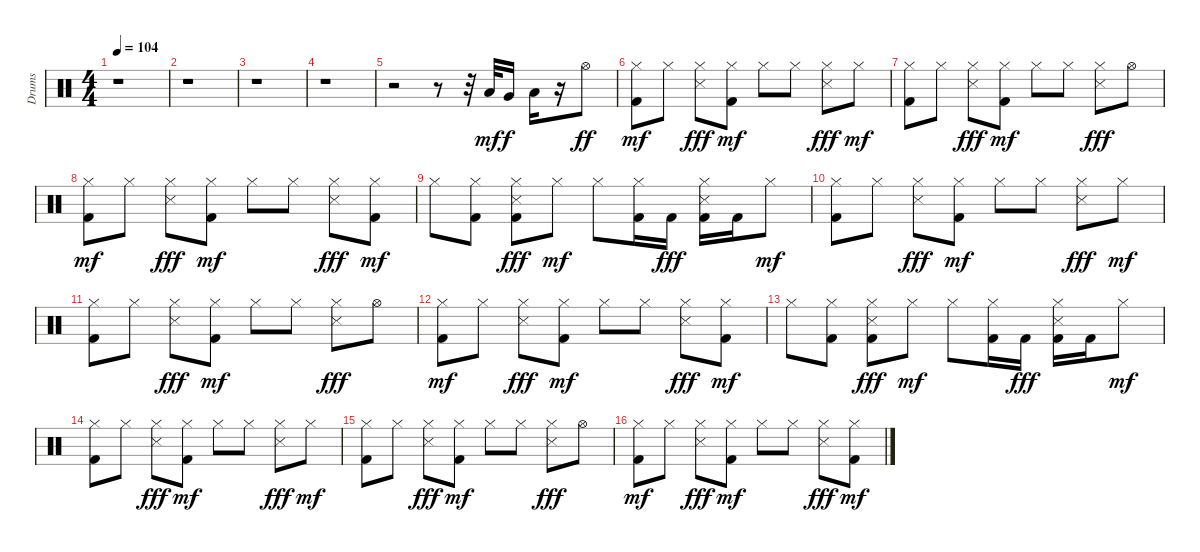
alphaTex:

\track ("Drums" "Drums") {instrument percussion}
\staff {score}
\articulation defaults
\ts (4 4)
\tempo 104
\clef neutral
\ks c
r.1{dy mf} |
r.1 |
r.1 |
r.1 |
r.2 r.8 r.32 "Low Floor Tom (hit)".32 "Very Low Tom (hit)".16{dy f} "Low Tom (hit)".16 r.16 "Hi-Hat (open)".8{dy ff} |
("Kick (hit) 2" "Hi-Hat (closed)").8{dy mf} "Hi-Hat (closed)".8 ("Hi-Hat (closed)" "Metronome (hit)").8{dy fff} ("Kick (hit) 2" "Hi-Hat (closed)").8{dy mf} "Hi-Hat (closed)".8 "Hi-Hat (closed)".8 ("Hi-Hat (closed)" "Metronome (hit)").8{dy fff} "Hi-Hat (closed)".8{dy mf} |
("Kick (hit) 2" "Hi-Hat (closed)").8 "Hi-Hat (closed)".8 ("Hi-Hat (closed)" "Metronome (hit)").8{dy fff} ("Kick (hit) 2" "Hi-Hat (closed)").8{dy mf} "Hi-Hat (closed)".8 "Hi-Hat (closed)".8 ("Hi-Hat (closed)" "Metronome (hit)").8{dy fff} "Hi-Hat (open)".8 |
("Kick (hit) 2" "Hi-Hat (closed)").8{dy mf} "Hi-Hat (closed)".8 ("Hi-Hat (closed)" "Metronome (hit)").8{dy fff} ("Kick (hit) 2" "Hi-Hat (closed)").8{dy mf} "Hi-Hat (closed)".8 "Hi-Hat (closed)".8 ("Hi-Hat (closed)" "Metronome (hit)").8{dy fff} ("Kick (hit) 2" "Hi-Hat (closed)").8{dy mf} |
"Hi-Hat (closed)".8 ("Kick (hit) 2" "Hi-Hat (closed)").8 ("Kick (hit) 2" "Hi-Hat (closed)" "Metronome (hit)").8{dy fff} "Hi-Hat (closed)".8{dy mf} "Hi-Hat (closed)".8 ("Kick (hit) 2" "Hi-Hat (closed)").16 "Kick (hit) 2".16{dy fff} ("Kick (hit) 2" "Hi-Hat (closed)" "Metronome (hit)").16 "Kick (hit) 2".16 "Hi-Hat (closed)".8{dy mf} |
("Kick (hit) 2" "Hi-Hat (closed)").8 "Hi-Hat (closed)".8 ("Hi-Hat (closed)" "Metronome (hit)").8{dy fff} ("Kick (hit) 2" "Hi-Hat (closed)").8{dy mf} "Hi-Hat (closed)".8 "Hi-Hat (closed)".8 ("Hi-Hat (closed)" "Metronome (hit)").8{dy fff} "Hi-Hat (closed)".8{dy mf} |
("Kick (hit) 2" "Hi-Hat (closed)").8 "Hi-Hat (closed)".8 ("Hi-Hat (closed)" "Metronome (hit)").8{dy fff} ("Kick (hit) 2" "Hi-Hat (closed)").8{dy mf} "Hi-Hat (closed)".8 "Hi-Hat (closed)".8 ("Hi-Hat (closed)" "Metronome (hit)").8{dy fff} "Hi-Hat (open)".8 |
("Kick (hit) 2" "Hi-Hat (closed)").8{dy mf} "Hi-Hat (closed)".8 ("Hi-Hat (closed)" "Metronome (hit)").8{dy fff} ("Kick (hit) 2" "Hi-Hat (closed)").8{dy mf} "Hi-Hat (closed)".8 "Hi-Hat (closed)".8 ("Hi-Hat (closed)" "Metronome (hit)").8{dy fff} ("Kick (hit) 2" "Hi-Hat (closed)").8{dy mf} |
"Hi-Hat (closed)".8 ("Kick (hit) 2" "Hi-Hat (closed)").8 ("Kick (hit) 2" "Hi-Hat (closed)" "Metronome (hit)").8{dy fff} "Hi-Hat (closed)".8{dy mf} "Hi-Hat (closed)".8 ("Kick (hit) 2" "Hi-Hat (closed)").16 "Kick (hit) 2".16{dy fff} ("Kick (hit) 2" "Hi-Hat (closed)" "Metronome (hit)").16 "Kick (hit) 2".16 "Hi-Hat (closed)".8{dy mf} |
("Kick (hit) 2" "Hi-Hat (closed)").8 "Hi-Hat (closed)".8 ("Hi-Hat (closed)" "Metronome (hit)").8{dy fff} ("Kick (hit) 2" "Hi-Hat (closed)").8{dy mf} "Hi-Hat (closed)".8 "Hi-Hat (closed)".8 ("Hi-Hat (closed)" "Metronome (hit)").8{dy fff} "Hi-Hat (closed)".8{dy mf} |
("Kick (hit) 2" "Hi-Hat (closed)").8 "Hi-Hat (closed)".8 ("Hi-Hat (closed)" "Metronome (hit)").8{dy fff} ("Kick (hit) 2" "Hi-Hat (closed)").8{dy mf} "Hi-Hat (closed)".8 "Hi-Hat (closed)".8 ("Hi-Hat (closed)" "Metronome (hit)").8{dy fff} "Hi-Hat (open)".8 |
("Kick (hit) 2" "Hi-Hat (closed)").8{dy mf} "Hi-Hat (closed)".8 ("Hi-Hat (closed)" "Metronome (hit)").8{dy fff} ("Kick (hit) 2" "Hi-Hat (closed)").8{dy mf} "Hi-Hat (closed)".8 "Hi-Hat (closed)".8 ("Hi-Hat (closed)" "Metronome (hit)").8{dy fff} ("Kick (hit) 2" "Hi-Hat (closed)").8{dy mf}
